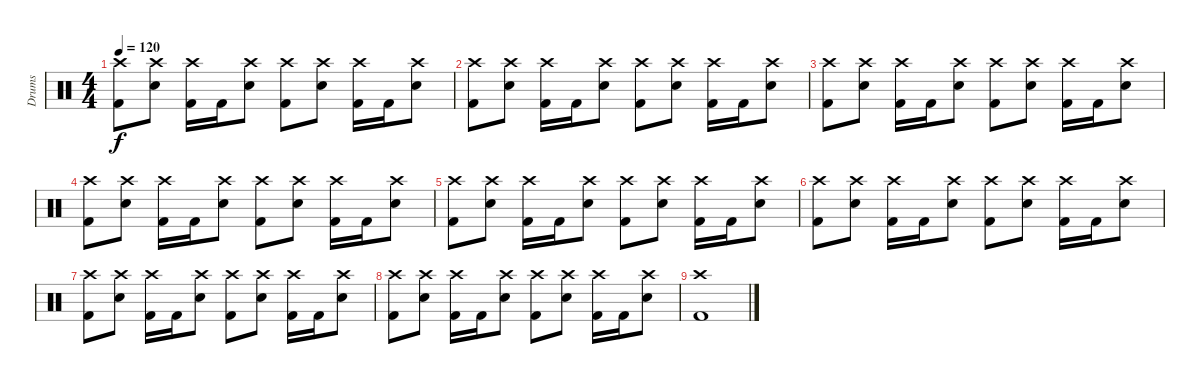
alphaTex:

\track ("Drums" "Drums") {instrument percussion}
\staff {score}
\articulation defaults
\ts (4 4)
\tempo 120
\clef neutral
\ks c
("Crash high (hit)" "Kick (hit) 2").8{dy f} ("Crash high (hit)" "Snare (hit) 2").8 ("Crash high (hit)" "Kick (hit) 2").16 "Kick (hit) 2".16 ("Crash high (hit)" "Snare (hit) 2").8 ("Crash high (hit)" "Kick (hit) 2").8 ("Crash high (hit)" "Snare (hit) 2").8 ("Crash high (hit)" "Kick (hit) 2").16 "Kick (hit) 2".16 ("Crash high (hit)" "Snare (hit) 2").8 |
("Crash high (hit)" "Kick (hit) 2").8 ("Crash high (hit)" "Snare (hit) 2").8 ("Crash high (hit)" "Kick (hit) 2").16 "Kick (hit) 2".16 ("Crash high (hit)" "Snare (hit) 2").8 ("Crash high (hit)" "Kick (hit) 2").8 ("Crash high (hit)" "Snare (hit) 2").8 ("Crash high (hit)" "Kick (hit) 2").16 "Kick (hit) 2".16 ("Crash high (hit)" "Snare (hit) 2").8 |
("Crash high (hit)" "Kick (hit) 2").8 ("Crash high (hit)" "Snare (hit) 2").8 ("Crash high (hit)" "Kick (hit) 2").16 "Kick (hit) 2".16 ("Crash high (hit)" "Snare (hit) 2").8 ("Crash high (hit)" "Kick (hit) 2").8 ("Crash high (hit)" "Snare (hit) 2").8 ("Crash high (hit)" "Kick (hit) 2").16 "Kick (hit) 2".16 ("Crash high (hit)" "Snare (hit) 2").8 |
("Crash high (hit)" "Kick (hit) 2").8 ("Crash high (hit)" "Snare (hit) 2").8 ("Crash high (hit)" "Kick (hit) 2").16 "Kick (hit) 2".16 ("Crash high (hit)" "Snare (hit) 2").8 ("Crash high (hit)" "Kick (hit) 2").8 ("Crash high (hit)" "Snare (hit) 2").8 ("Crash high (hit)" "Kick (hit) 2").16 "Kick (hit) 2".16 ("Crash high (hit)" "Snare (hit) 2").8 |
("Crash high (hit)" "Kick (hit) 2").8 ("Crash high (hit)" "Snare (hit) 2").8 ("Crash high (hit)" "Kick (hit) 2").16 "Kick (hit) 2".16 ("Crash high (hit)" "Snare (hit) 2").8 ("Crash high (hit)" "Kick (hit) 2").8 ("Crash high (hit)" "Snare (hit) 2").8 ("Crash high (hit)" "Kick (hit) 2").16 "Kick (hit) 2".16 ("Crash high (hit)" "Snare (hit) 2").8 |
("Crash high (hit)" "Kick (hit) 2").8 ("Crash high (hit)" "Snare (hit) 2").8 ("Crash high (hit)" "Kick (hit) 2").16 "Kick (hit) 2".16 ("Crash high (hit)" "Snare (hit) 2").8 ("Crash high (hit)" "Kick (hit) 2").8 ("Crash high (hit)" "Snare (hit) 2").8 ("Crash high (hit)" "Kick (hit) 2").16 "Kick (hit) 2".16 ("Crash high (hit)" "Snare (hit) 2").8 |
("Crash high (hit)" "Kick (hit) 2").8 ("Crash high (hit)" "Snare (hit) 2").8 ("Crash high (hit)" "Kick (hit) 2").16 "Kick (hit) 2".16 ("Crash high (hit)" "Snare (hit) 2").8 ("Crash high (hit)" "Kick (hit) 2").8 ("Crash high (hit)" "Snare (hit) 2").8 ("Crash high (hit)" "Kick (hit) 2").16 "Kick (hit) 2".16 ("Crash high (hit)" "Snare (hit) 2").8 |
("Crash high (hit)" "Kick (hit) 2").8 ("Crash high (hit)" "Snare (hit) 2").8 ("Crash high (hit)" "Kick (hit) 2").16 "Kick (hit) 2".16 ("Crash high (hit)" "Snare (hit) 2").8 ("Crash high (hit)" "Kick (hit) 2").8 ("Crash high (hit)" "Snare (hit) 2").8 ("Crash high (hit)" "Kick (hit) 2").16 "Kick (hit) 2".16 ("Crash high (hit)" "Snare (hit) 2").8 |
("Crash high (hit)" "Kick (hit) 2").1
